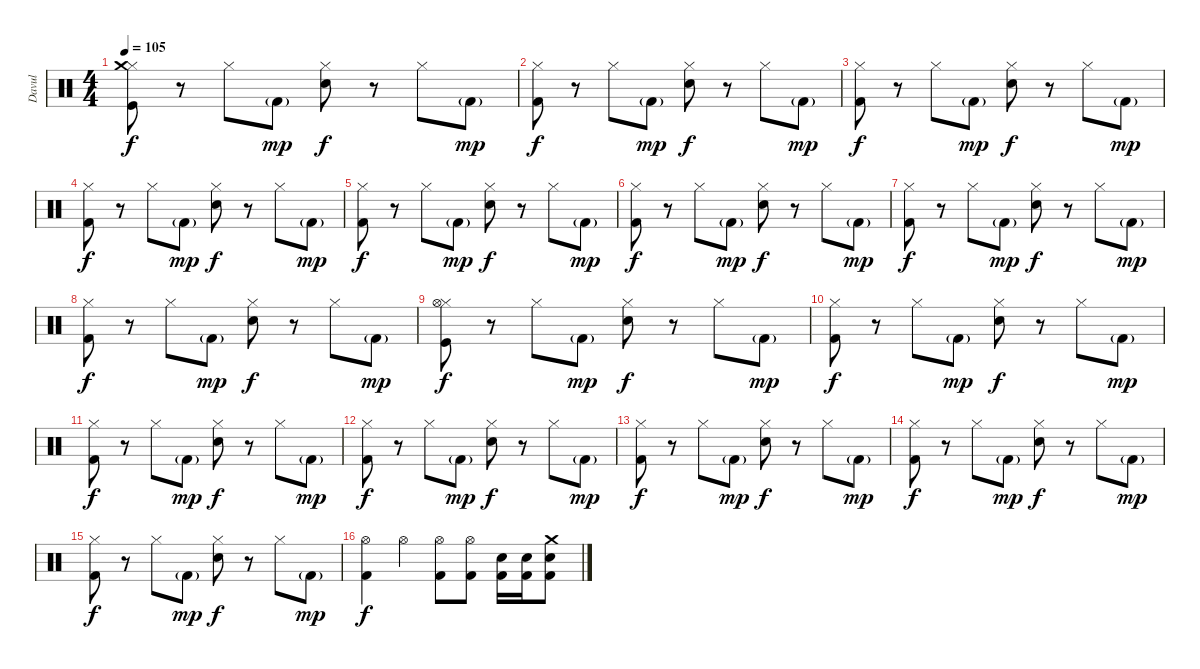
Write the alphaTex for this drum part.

\track ("Davul" "Davul") {instrument percussion}
\staff {score}
\articulation defaults
\ts (4 4)
\tempo 105
\clef neutral
\ks c
("Hi-Hat (closed)" "Kick (hit)" "Crash medium (hit)").8{dy f volume 14} r.8 "Hi-Hat (closed)".8 "Kick (hit) 2"{g}.8{dy mp} ("Hi-Hat (closed)" "Electric Snare (hit)").8{dy f} r.8 "Hi-Hat (closed)".8 "Kick (hit) 2"{g}.8{dy mp} |
("Hi-Hat (closed)" "Kick (hit) 2").8{dy f} r.8 "Hi-Hat (closed)".8 "Kick (hit) 2"{g}.8{dy mp} ("Hi-Hat (closed)" "Electric Snare (hit)").8{dy f} r.8 "Hi-Hat (closed)".8 "Kick (hit) 2"{g}.8{dy mp} |
("Hi-Hat (closed)" "Kick (hit) 2").8{dy f} r.8 "Hi-Hat (closed)".8 "Kick (hit) 2"{g}.8{dy mp} ("Hi-Hat (closed)" "Electric Snare (hit)").8{dy f} r.8 "Hi-Hat (closed)".8 "Kick (hit) 2"{g}.8{dy mp} |
("Hi-Hat (closed)" "Kick (hit) 2").8{dy f} r.8 "Hi-Hat (closed)".8 "Kick (hit) 2"{g}.8{dy mp} ("Hi-Hat (closed)" "Electric Snare (hit)").8{dy f} r.8 "Hi-Hat (closed)".8 "Kick (hit) 2"{g}.8{dy mp} |
("Hi-Hat (closed)" "Kick (hit) 2").8{dy f} r.8 "Hi-Hat (closed)".8 "Kick (hit) 2"{g}.8{dy mp} ("Hi-Hat (closed)" "Electric Snare (hit)").8{dy f} r.8 "Hi-Hat (closed)".8 "Kick (hit) 2"{g}.8{dy mp} |
("Hi-Hat (closed)" "Kick (hit) 2").8{dy f} r.8 "Hi-Hat (closed)".8 "Kick (hit) 2"{g}.8{dy mp} ("Hi-Hat (closed)" "Electric Snare (hit)").8{dy f} r.8 "Hi-Hat (closed)".8 "Kick (hit) 2"{g}.8{dy mp} |
("Hi-Hat (closed)" "Kick (hit) 2").8{dy f} r.8 "Hi-Hat (closed)".8 "Kick (hit) 2"{g}.8{dy mp} ("Hi-Hat (closed)" "Electric Snare (hit)").8{dy f} r.8 "Hi-Hat (closed)".8 "Kick (hit) 2"{g}.8{dy mp} |
("Hi-Hat (closed)" "Kick (hit) 2").8{dy f} r.8 "Hi-Hat (closed)".8 "Kick (hit) 2"{g}.8{dy mp} ("Hi-Hat (closed)" "Electric Snare (hit)").8{dy f} r.8 "Hi-Hat (closed)".8 "Kick (hit) 2"{g}.8{dy mp} |
("Hi-Hat (closed)" "Kick (hit)" "Hi-Hat (open)").8{dy f} r.8 "Hi-Hat (closed)".8 "Kick (hit) 2"{g}.8{dy mp} ("Hi-Hat (closed)" "Electric Snare (hit)").8{dy f} r.8 "Hi-Hat (closed)".8 "Kick (hit) 2"{g}.8{dy mp} |
("Hi-Hat (closed)" "Kick (hit) 2").8{dy f} r.8 "Hi-Hat (closed)".8 "Kick (hit) 2"{g}.8{dy mp} ("Hi-Hat (closed)" "Electric Snare (hit)").8{dy f} r.8 "Hi-Hat (closed)".8 "Kick (hit) 2"{g}.8{dy mp} |
("Hi-Hat (closed)" "Kick (hit) 2").8{dy f} r.8 "Hi-Hat (closed)".8 "Kick (hit) 2"{g}.8{dy mp} ("Hi-Hat (closed)" "Electric Snare (hit)").8{dy f} r.8 "Hi-Hat (closed)".8 "Kick (hit) 2"{g}.8{dy mp} |
("Hi-Hat (closed)" "Kick (hit) 2").8{dy f} r.8 "Hi-Hat (closed)".8 "Kick (hit) 2"{g}.8{dy mp} ("Hi-Hat (closed)" "Electric Snare (hit)").8{dy f} r.8 "Hi-Hat (closed)".8 "Kick (hit) 2"{g}.8{dy mp} |
("Hi-Hat (closed)" "Kick (hit) 2").8{dy f} r.8 "Hi-Hat (closed)".8 "Kick (hit) 2"{g}.8{dy mp} ("Hi-Hat (closed)" "Electric Snare (hit)").8{dy f} r.8 "Hi-Hat (closed)".8 "Kick (hit) 2"{g}.8{dy mp} |
("Hi-Hat (closed)" "Kick (hit) 2").8{dy f} r.8 "Hi-Hat (closed)".8 "Kick (hit) 2"{g}.8{dy mp} ("Hi-Hat (closed)" "Electric Snare (hit)").8{dy f} r.8 "Hi-Hat (closed)".8 "Kick (hit) 2"{g}.8{dy mp} |
("Hi-Hat (closed)" "Kick (hit) 2").8{dy f} r.8 "Hi-Hat (closed)".8 "Kick (hit) 2"{g}.8{dy mp} ("Hi-Hat (closed)" "Electric Snare (hit)").8{dy f} r.8 "Hi-Hat (closed)".8 "Kick (hit) 2"{g}.8{dy mp} |
("Hi-Hat (open)" "Kick (hit) 2").4{dy f volume 15} "Hi-Hat (open)".4 ("Kick (hit) 2" "Hi-Hat (open)").8 ("Kick (hit) 2" "Hi-Hat (open)").8 ("Kick (hit) 2" "Snare (hit) 2").16 ("Kick (hit) 2" "Snare (hit) 2").16 ("Kick (hit) 2" "Snare (hit) 2" "Crash medium (hit)").8
